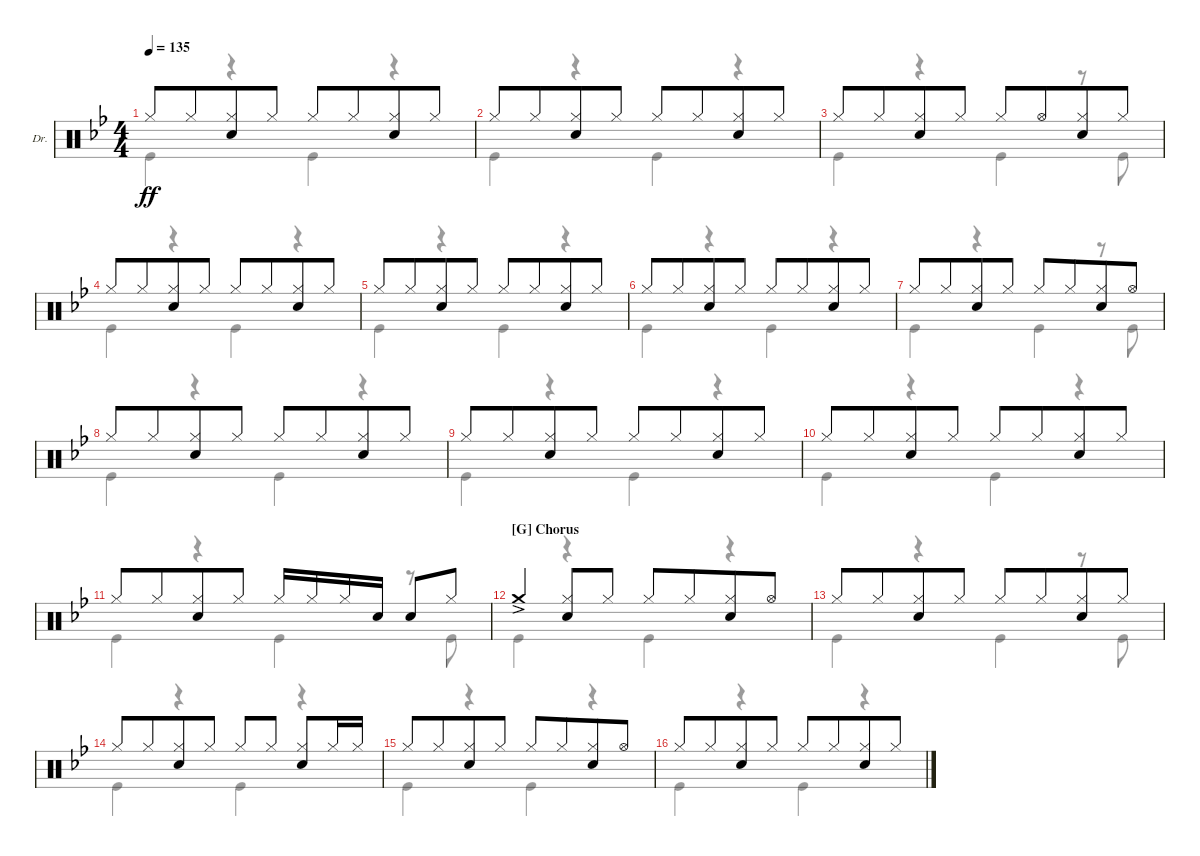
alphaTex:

\defaultSystemsLayout 4
\bracketExtendMode groupsimilarinstruments
\firstSystemTrackNameOrientation horizontal
\otherSystemsTrackNameOrientation horizontal
\track ("Drums" "Dr.") {instrument percussion}
\staff {score}
\articulation defaults
\voice
\ts (4 4)
\tempo 135
\clef neutral
\ks bb "Hi-Hat (closed)".8{dy ff beam merge} "Hi-Hat (closed)".8{beam merge}
("Hi-Hat (closed)" "Snare (hit) 2").8{beam merge} "Hi-Hat (closed)".8 "Hi-Hat (closed)".8{beam merge} "Hi-Hat (closed)".8{beam merge} ("Hi-Hat (closed)" "Snare (hit) 2").8{beam merge} "Hi-Hat (closed)".8 |
"Hi-Hat (closed)".8{beam merge} "Hi-Hat (closed)".8{beam merge} ("Hi-Hat (closed)" "Snare (hit) 2").8{beam merge} "Hi-Hat (closed)".8 "Hi-Hat (closed)".8{beam merge} "Hi-Hat (closed)".8{beam merge} ("Hi-Hat (closed)" "Snare (hit) 2").8{beam merge} "Hi-Hat (closed)".8 |
"Hi-Hat (closed)".8{beam merge} "Hi-Hat (closed)".8{beam merge} ("Hi-Hat (closed)" "Snare (hit) 2").8{beam merge} "Hi-Hat (closed)".8 "Hi-Hat (closed)".8{beam merge} "Hi-Hat (open)".8{beam merge} ("Hi-Hat (closed)" "Snare (hit) 2").8{beam merge} "Hi-Hat (closed)".8 |
"Hi-Hat (closed)".8{beam merge} "Hi-Hat (closed)".8{beam merge} ("Hi-Hat (closed)" "Snare (hit) 2").8{beam merge} "Hi-Hat (closed)".8 "Hi-Hat (closed)".8{beam merge} "Hi-Hat (closed)".8{beam merge} ("Hi-Hat (closed)" "Snare (hit) 2").8{beam merge} "Hi-Hat (closed)".8 |
"Hi-Hat (closed)".8{beam merge} "Hi-Hat (closed)".8{beam merge} ("Hi-Hat (closed)" "Snare (hit) 2").8{beam merge} "Hi-Hat (closed)".8 "Hi-Hat (closed)".8{beam merge} "Hi-Hat (closed)".8{beam merge} ("Hi-Hat (closed)" "Snare (hit) 2").8{beam merge} "Hi-Hat (closed)".8 |
"Hi-Hat (closed)".8{beam merge} "Hi-Hat (closed)".8{beam merge} ("Hi-Hat (closed)" "Snare (hit) 2").8{beam merge} "Hi-Hat (closed)".8 "Hi-Hat (closed)".8{beam merge} "Hi-Hat (closed)".8{beam merge} ("Hi-Hat (closed)" "Snare (hit) 2").8{beam merge} "Hi-Hat (closed)".8 |
"Hi-Hat (closed)".8{beam merge} "Hi-Hat (closed)".8{beam merge} ("Hi-Hat (closed)" "Snare (hit) 2").8{beam merge} "Hi-Hat (closed)".8 "Hi-Hat (closed)".8{beam merge} "Hi-Hat (closed)".8{beam merge} ("Hi-Hat (closed)" "Snare (hit) 2").8{beam merge} "Hi-Hat (open)".8 |
"Hi-Hat (closed)".8{beam merge} "Hi-Hat (closed)".8{beam merge} ("Hi-Hat (closed)" "Snare (hit) 2").8{beam merge} "Hi-Hat (closed)".8 "Hi-Hat (closed)".8{beam merge} "Hi-Hat (closed)".8{beam merge} ("Hi-Hat (closed)" "Snare (hit) 2").8{beam merge} "Hi-Hat (closed)".8 |
"Hi-Hat (closed)".8{beam merge} "Hi-Hat (closed)".8{beam merge} ("Hi-Hat (closed)" "Snare (hit) 2").8{beam merge} "Hi-Hat (closed)".8 "Hi-Hat (closed)".8{beam merge} "Hi-Hat (closed)".8{beam merge} ("Hi-Hat (closed)" "Snare (hit) 2").8{beam merge} "Hi-Hat (closed)".8 |
"Hi-Hat (closed)".8{beam merge} "Hi-Hat (closed)".8{beam merge} ("Hi-Hat (closed)" "Snare (hit) 2").8{beam merge} "Hi-Hat (closed)".8 "Hi-Hat (closed)".8{beam merge} "Hi-Hat (closed)".8{beam merge} ("Hi-Hat (closed)" "Snare (hit) 2").8{beam merge} "Hi-Hat (closed)".8 |
"Hi-Hat (closed)".8{beam merge} "Hi-Hat (closed)".8{beam merge} ("Hi-Hat (closed)" "Snare (hit) 2").8{beam merge} "Hi-Hat (closed)".8 "Hi-Hat (closed)".16{beam merge} "Hi-Hat (closed)".16{beam merge} "Hi-Hat (closed)".16{beam merge} "Snare (hit) 2".16 "Snare (hit) 2".8 "Hi-Hat (closed)".8 |
\section ("G" "Chorus")
"Crash medium (hit)"{ac}.4{beam merge} ("Hi-Hat (closed)" "Snare (hit) 2").8{beam merge} "Hi-Hat (closed)".8 "Hi-Hat (closed)".8{beam merge} "Hi-Hat (closed)".8{beam merge} ("Hi-Hat (closed)" "Snare (hit) 2").8{beam merge} "Hi-Hat (open)".8 |
"Hi-Hat (closed)".8{beam merge} "Hi-Hat (closed)".8{beam merge} ("Hi-Hat (closed)" "Snare (hit) 2").8{beam merge} "Hi-Hat (closed)".8 "Hi-Hat (closed)".8{beam merge} "Hi-Hat (closed)".8{beam merge} ("Hi-Hat (closed)" "Snare (hit) 2").8{beam merge} "Hi-Hat (closed)".8 |
"Hi-Hat (closed)".8{beam merge} "Hi-Hat (closed)".8{beam merge} ("Hi-Hat (closed)" "Snare (hit) 2").8{beam merge} "Hi-Hat (closed)".8 "Hi-Hat (closed)".8{beam merge} "Hi-Hat (closed)".8{beam split} ("Hi-Hat (closed)" "Snare (hit) 2").8{beam merge} "Hi-Hat (closed)".16 "Hi-Hat (closed)".16 |
"Hi-Hat (closed)".8{beam merge} "Hi-Hat (closed)".8{beam merge} ("Hi-Hat (closed)" "Snare (hit) 2").8{beam merge} "Hi-Hat (closed)".8 "Hi-Hat (closed)".8{beam merge} "Hi-Hat (closed)".8{beam merge} ("Hi-Hat (closed)" "Snare (hit) 2").8{beam merge} "Hi-Hat (open)".8 |
"Hi-Hat (closed)".8{beam merge} "Hi-Hat (closed)".8{beam merge} ("Hi-Hat (closed)" "Snare (hit) 2").8{beam merge} "Hi-Hat (closed)".8 "Hi-Hat (closed)".8{beam merge} "Hi-Hat (closed)".8{beam merge} ("Hi-Hat (closed)" "Snare (hit) 2").8{beam merge} "Hi-Hat (closed)".8
\voice
\clef neutral
\ottava regular
\simile none
\ks bb "Kick (hit)".4{dy ff}
r.4 "Kick (hit)".4 r.4 |
"Kick (hit)".4 r.4 "Kick (hit)".4 r.4 |
"Kick (hit)".4 r.4 "Kick (hit)".4 r.8 "Kick (hit)".8 |
"Kick (hit)".4 r.4 "Kick (hit)".4 r.4 |
"Kick (hit)".4 r.4 "Kick (hit)".4 r.4 |
"Kick (hit)".4 r.4 "Kick (hit)".4 r.4 |
"Kick (hit)".4 r.4 "Kick (hit)".4 r.8 "Kick (hit)".8 |
"Kick (hit)".4 r.4 "Kick (hit)".4 r.4 |
"Kick (hit)".4 r.4 "Kick (hit)".4 r.4 |
"Kick (hit)".4 r.4 "Kick (hit)".4 r.4 |
"Kick (hit)".4 r.4 "Kick (hit)".4 r.8 "Kick (hit)".8 |
"Kick (hit)".4 r.4 "Kick (hit)".4 r.4 |
"Kick (hit)".4 r.4 "Kick (hit)".4 r.8 "Kick (hit)".8 |
"Kick (hit)".4 r.4 "Kick (hit)".4 r.4 |
"Kick (hit)".4 r.4 "Kick (hit)".4 r.4 |
"Kick (hit)".4 r.4 "Kick (hit)".4 r.4
